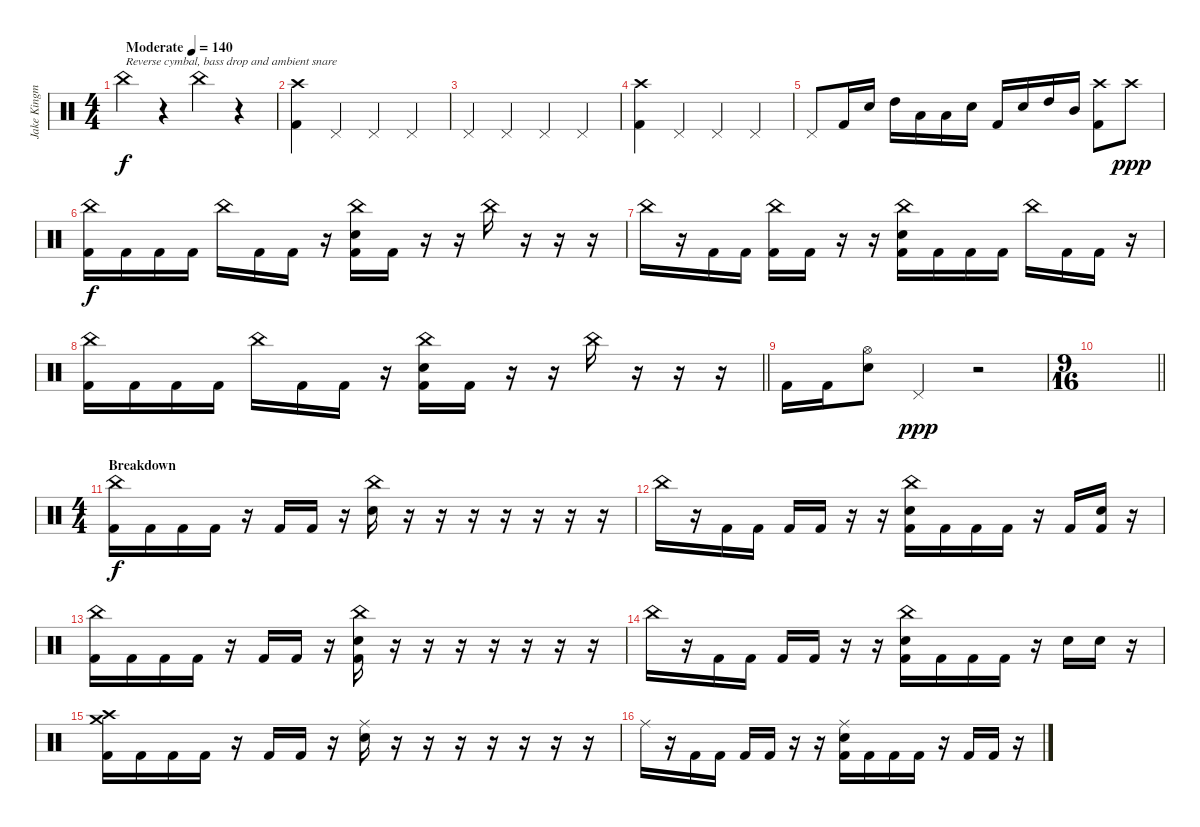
\track ("Jake Kingman (Drums)" "Jake Kingm") {instrument percussion}
\staff {score}
\articulation defaults
\ts (4 4)
\tempo (140 "Moderate")
\clef neutral
\ks c "China (hit)".4{txt "Reverse cymbal, bass drop and ambient snare" dy f}
r.4 "China (hit)".4 r.4 |
("Crash high (hit)" "Kick (hit) 2").4 "Pedal Hi-Hat (hit)".4 "Pedal Hi-Hat (hit)".4 "Pedal Hi-Hat (hit)".4 |
"Pedal Hi-Hat (hit)".4 "Pedal Hi-Hat (hit)".4 "Pedal Hi-Hat (hit)".4 "Pedal Hi-Hat (hit)".4 |
("Crash high (hit)" "Kick (hit) 2").4 "Pedal Hi-Hat (hit)".4 "Pedal Hi-Hat (hit)".4 "Pedal Hi-Hat (hit)".4 |
"Pedal Hi-Hat (hit)".8 "Kick (hit) 2".16 "Electric Snare (hit)".16 "High Tom (hit)".16 "Low Tom (hit)".16 "Low Floor Tom (hit)".16 "Electric Snare (hit)".16 "Kick (hit) 2".16 "Electric Snare (hit)".16 "High Tom (hit)".16 "Mid Tom (hit)".16 ("Crash high (hit)" "Kick (hit) 2").8 "Crash high (hit)".8{dy ppp} |
("China (hit)" "Kick (hit) 2").16{dy f} "Kick (hit) 2".16 "Kick (hit) 2".16 "Kick (hit) 2".16 "China (hit)".16 "Kick (hit) 2".16 "Kick (hit) 2".16 r.16 ("China (hit)" "Electric Snare (hit)" "Kick (hit) 2").16 "Kick (hit) 2".16 r.16 r.16 "China (hit)".16 r.16 r.16 r.16 |
"China (hit)".16 r.16 "Kick (hit) 2".16 "Kick (hit) 2".16 ("China (hit)" "Kick (hit) 2").16 "Kick (hit) 2".16 r.16 r.16 ("China (hit)" "Electric Snare (hit)" "Kick (hit) 2").16 "Kick (hit) 2".16 "Kick (hit) 2".16 "Kick (hit) 2".16 "China (hit)".16 "Kick (hit) 2".16 "Kick (hit) 2".16 r.16 |
\barLineRight lightlight
("China (hit)" "Kick (hit) 2").16 "Kick (hit) 2".16 "Kick (hit) 2".16 "Kick (hit) 2".16 "China (hit)".16 "Kick (hit) 2".16 "Kick (hit) 2".16 r.16 ("China (hit)" "Electric Snare (hit)" "Kick (hit) 2").16 "Kick (hit) 2".16 r.16 r.16 "China (hit)".16 r.16 r.16 r.16 |
\section ("" "")
"Kick (hit) 2".16 "Kick (hit) 2".16 ("Hi-Hat (open)" "Electric Snare (hit)").8 "Pedal Hi-Hat (hit)".4{dy ppp} r.2 |
\ts (9 16)
\barLineRight lightlight
|
\ts (4 4)
\section ("" "Breakdown")
("China (hit)" "Kick (hit) 2").16{dy f} "Kick (hit) 2".16 "Kick (hit) 2".16 "Kick (hit) 2".16 r.16 "Kick (hit) 2".16 "Kick (hit) 2".16 r.16 ("China (hit)" "Electric Snare (hit)").16 r.16 r.16 r.16 r.16 r.16 r.16 r.16 |
"China (hit)".16 r.16 "Kick (hit) 2".16 "Kick (hit) 2".16 "Kick (hit) 2".16 "Kick (hit) 2".16 r.16 r.16 ("China (hit)" "Electric Snare (hit)" "Kick (hit) 2").16 "Kick (hit) 2".16 "Kick (hit) 2".16 "Kick (hit) 2".16 r.16 "Kick (hit) 2".16 ("Electric Snare (hit)" "Kick (hit) 2").16 r.16 |
("China (hit)" "Kick (hit) 2").16 "Kick (hit) 2".16 "Kick (hit) 2".16 "Kick (hit) 2".16 r.16 "Kick (hit) 2".16 "Kick (hit) 2".16 r.16 ("China (hit)" "Electric Snare (hit)" "Kick (hit) 2").16 r.16 r.16 r.16 r.16 r.16 r.16 r.16 |
"China (hit)".16 r.16 "Kick (hit) 2".16 "Kick (hit) 2".16 "Kick (hit) 2".16 "Kick (hit) 2".16 r.16 r.16 ("China (hit)" "Electric Snare (hit)" "Kick (hit) 2").16 "Kick (hit) 2".16 "Kick (hit) 2".16 "Kick (hit) 2".16 r.16 "Electric Snare (hit)".16 "Electric Snare (hit)".16 r.16 |
("Crash high (hit)" "Crash medium (hit)" "Kick (hit) 2").16 "Kick (hit) 2".16 "Kick (hit) 2".16 "Kick (hit) 2".16 r.16 "Kick (hit) 2".16 "Kick (hit) 2".16 r.16 ("Ride (middle)" "Electric Snare (hit)").16 r.16 r.16 r.16 r.16 r.16 r.16 r.16 |
"Ride (middle)".16 r.16 "Kick (hit) 2".16 "Kick (hit) 2".16 "Kick (hit) 2".16 "Kick (hit) 2".16 r.16 r.16 ("Ride (middle)" "Electric Snare (hit)" "Kick (hit) 2").16 "Kick (hit) 2".16 "Kick (hit) 2".16 "Kick (hit) 2".16 r.16 "Kick (hit) 2".16 "Kick (hit) 2".16 r.16
